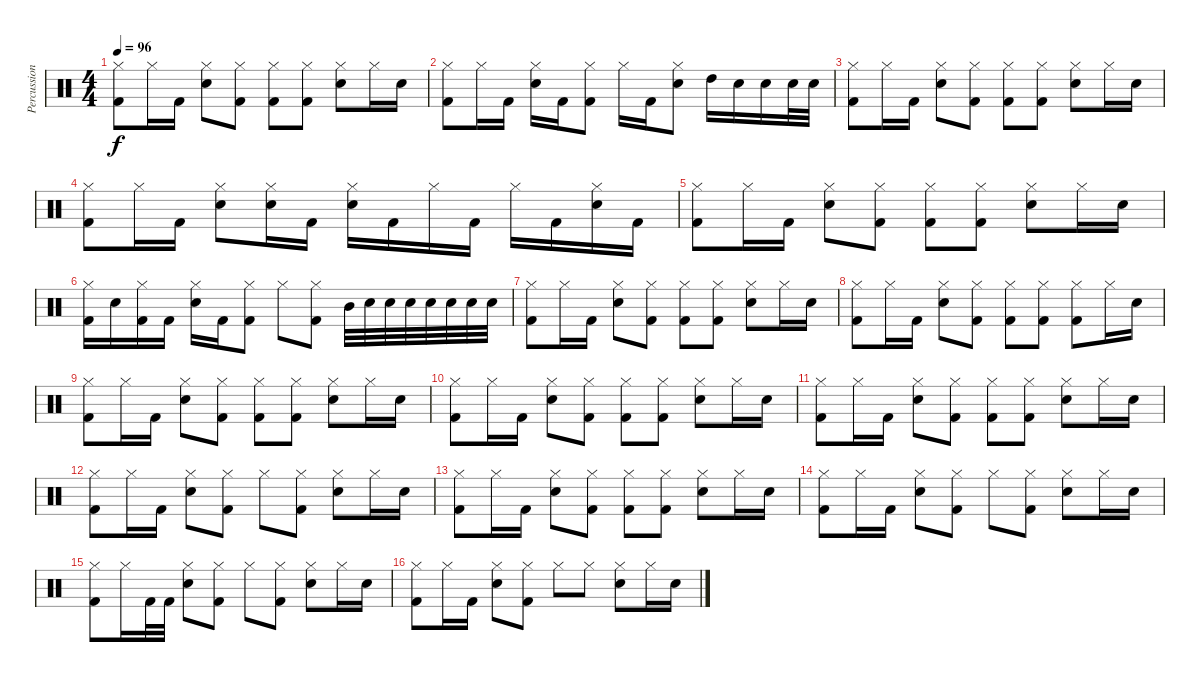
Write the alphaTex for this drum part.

\track ("Percussions" "Percussion") {instrument percussion}
\staff {score}
\articulation defaults
\ts (4 4)
\tempo 96
\clef neutral
\ks c
("Kick (hit) 2" "Hi-Hat (closed)").8{dy f} "Hi-Hat (closed)".16 "Kick (hit) 2".16 ("Hi-Hat (closed)" "Snare (hit) 2").8 ("Kick (hit) 2" "Hi-Hat (closed)").8 ("Kick (hit) 2" "Hi-Hat (closed)").8 ("Hi-Hat (closed)" "Kick (hit) 2").8 ("Hi-Hat (closed)" "Snare (hit) 2").8 "Hi-Hat (closed)".16 "Snare (hit) 2".16 |
("Kick (hit) 2" "Hi-Hat (closed)").8 "Hi-Hat (closed)".16 "Kick (hit) 2".16 ("Hi-Hat (closed)" "Snare (hit) 2").16 "Kick (hit) 2".16 ("Hi-Hat (closed)" "Kick (hit) 2").8 "Hi-Hat (closed)".16 "Kick (hit) 2".16 ("Snare (hit) 2" "Hi-Hat (closed)").8 "High Tom (hit)".16 "Snare (hit) 2".16 "Snare (hit) 2".16 "Snare (hit) 2".32 "Snare (hit) 2".32 |
("Kick (hit) 2" "Hi-Hat (closed)").8 "Hi-Hat (closed)".16 "Kick (hit) 2".16 ("Hi-Hat (closed)" "Snare (hit) 2").8 ("Kick (hit) 2" "Hi-Hat (closed)").8 ("Kick (hit) 2" "Hi-Hat (closed)").8 ("Hi-Hat (closed)" "Kick (hit) 2").8 ("Hi-Hat (closed)" "Snare (hit) 2").8 "Hi-Hat (closed)".16 "Snare (hit) 2".16 |
("Hi-Hat (closed)" "Kick (hit) 2").8 "Hi-Hat (closed)".16 "Kick (hit) 2".16 ("Hi-Hat (closed)" "Snare (hit) 2").8 ("Hi-Hat (closed)" "Snare (hit) 2").16 "Kick (hit) 2".16 ("Snare (hit) 2" "Hi-Hat (closed)").16 "Kick (hit) 2".16 "Hi-Hat (closed)".16 "Kick (hit) 2".16 "Hi-Hat (closed)".16 "Kick (hit) 2".16 ("Hi-Hat (closed)" "Snare (hit) 2").16 "Kick (hit) 2".16 |
("Kick (hit) 2" "Hi-Hat (closed)").8 "Hi-Hat (closed)".16 "Kick (hit) 2".16 ("Hi-Hat (closed)" "Snare (hit) 2").8 ("Kick (hit) 2" "Hi-Hat (closed)").8 ("Kick (hit) 2" "Hi-Hat (closed)").8 ("Hi-Hat (closed)" "Kick (hit) 2").8 ("Hi-Hat (closed)" "Snare (hit) 2").8 "Hi-Hat (closed)".16 "Snare (hit) 2".16 |
("Hi-Hat (closed)" "Kick (hit) 2").16 "Snare (hit) 2".16 ("Hi-Hat (closed)" "Kick (hit) 2").16 "Kick (hit) 2".16 ("Hi-Hat (closed)" "Snare (hit) 2").16 "Kick (hit) 2".16 ("Kick (hit) 2" "Hi-Hat (closed)").8 "Hi-Hat (closed)".8 ("Hi-Hat (closed)" "Kick (hit) 2").8 "Mid Tom (hit)".32 "Snare (hit) 2".32 "Snare (hit) 2".32 "Snare (hit) 2".32 "Snare (hit) 2".32 "Snare (hit) 2".32 "Snare (hit) 2".32 "Snare (hit) 2".32 |
("Kick (hit) 2" "Hi-Hat (closed)").8 "Hi-Hat (closed)".16 "Kick (hit) 2".16 ("Hi-Hat (closed)" "Snare (hit) 2").8 ("Kick (hit) 2" "Hi-Hat (closed)").8 ("Kick (hit) 2" "Hi-Hat (closed)").8 ("Hi-Hat (closed)" "Kick (hit) 2").8 ("Hi-Hat (closed)" "Snare (hit) 2").8 "Hi-Hat (closed)".16 "Snare (hit) 2".16 |
("Kick (hit) 2" "Hi-Hat (closed)").8 "Hi-Hat (closed)".16 "Kick (hit) 2".16 ("Hi-Hat (closed)" "Snare (hit) 2").8 ("Kick (hit) 2" "Hi-Hat (closed)").8 ("Kick (hit) 2" "Hi-Hat (closed)").8 ("Hi-Hat (closed)" "Kick (hit) 2").8 ("Hi-Hat (closed)" "Kick (hit) 2").8 "Hi-Hat (closed)".16 "Snare (hit) 2".16 |
("Kick (hit) 2" "Hi-Hat (closed)").8 "Hi-Hat (closed)".16 "Kick (hit) 2".16 ("Hi-Hat (closed)" "Snare (hit) 2").8 ("Kick (hit) 2" "Hi-Hat (closed)").8 ("Kick (hit) 2" "Hi-Hat (closed)").8 ("Hi-Hat (closed)" "Kick (hit) 2").8 ("Hi-Hat (closed)" "Snare (hit) 2").8 "Hi-Hat (closed)".16 "Snare (hit) 2".16 |
("Kick (hit) 2" "Hi-Hat (closed)").8 "Hi-Hat (closed)".16 "Kick (hit) 2".16 ("Hi-Hat (closed)" "Snare (hit) 2").8 ("Kick (hit) 2" "Hi-Hat (closed)").8 ("Kick (hit) 2" "Hi-Hat (closed)").8 ("Hi-Hat (closed)" "Kick (hit) 2").8 ("Hi-Hat (closed)" "Snare (hit) 2").8 "Hi-Hat (closed)".16 "Snare (hit) 2".16 |
("Kick (hit) 2" "Hi-Hat (closed)").8 "Hi-Hat (closed)".16 "Kick (hit) 2".16 ("Hi-Hat (closed)" "Snare (hit) 2").8 ("Kick (hit) 2" "Hi-Hat (closed)").8 ("Kick (hit) 2" "Hi-Hat (closed)").8 ("Hi-Hat (closed)" "Kick (hit) 2").8 ("Hi-Hat (closed)" "Snare (hit) 2").8 "Hi-Hat (closed)".16 "Snare (hit) 2".16 |
("Kick (hit) 2" "Hi-Hat (closed)").8 "Hi-Hat (closed)".16 "Kick (hit) 2".16 ("Hi-Hat (closed)" "Snare (hit) 2").8 ("Kick (hit) 2" "Hi-Hat (closed)").8 "Hi-Hat (closed)".8 ("Hi-Hat (closed)" "Kick (hit) 2").8 ("Hi-Hat (closed)" "Snare (hit) 2").8 "Hi-Hat (closed)".16 "Snare (hit) 2".16 |
("Kick (hit) 2" "Hi-Hat (closed)").8 "Hi-Hat (closed)".16 "Kick (hit) 2".16 ("Hi-Hat (closed)" "Snare (hit) 2").8 ("Kick (hit) 2" "Hi-Hat (closed)").8 ("Kick (hit) 2" "Hi-Hat (closed)").8 ("Hi-Hat (closed)" "Kick (hit) 2").8 ("Hi-Hat (closed)" "Snare (hit) 2").8 "Hi-Hat (closed)".16 "Snare (hit) 2".16 |
("Kick (hit) 2" "Hi-Hat (closed)").8 "Hi-Hat (closed)".16 "Kick (hit) 2".16 ("Hi-Hat (closed)" "Snare (hit) 2").8 ("Kick (hit) 2" "Hi-Hat (closed)").8 "Hi-Hat (closed)".8 ("Hi-Hat (closed)" "Kick (hit) 2").8 ("Hi-Hat (closed)" "Snare (hit) 2").8 "Hi-Hat (closed)".16 "Snare (hit) 2".16 |
("Hi-Hat (closed)" "Kick (hit) 2").8 "Hi-Hat (closed)".16 "Kick (hit) 2".32 "Kick (hit) 2".32 ("Hi-Hat (closed)" "Snare (hit) 2").8 ("Hi-Hat (closed)" "Kick (hit) 2").8 "Hi-Hat (closed)".8 ("Kick (hit) 2" "Hi-Hat (closed)").8 ("Hi-Hat (closed)" "Snare (hit) 2").8 "Hi-Hat (closed)".16 "Snare (hit) 2".16 |
("Kick (hit) 2" "Hi-Hat (closed)").8 "Hi-Hat (closed)".16 "Kick (hit) 2".16 ("Hi-Hat (closed)" "Snare (hit) 2").8 ("Kick (hit) 2" "Hi-Hat (closed)").8 "Hi-Hat (closed)".8 "Hi-Hat (closed)".8 ("Hi-Hat (closed)" "Snare (hit) 2").8 "Hi-Hat (closed)".16 "Snare (hit) 2".16
